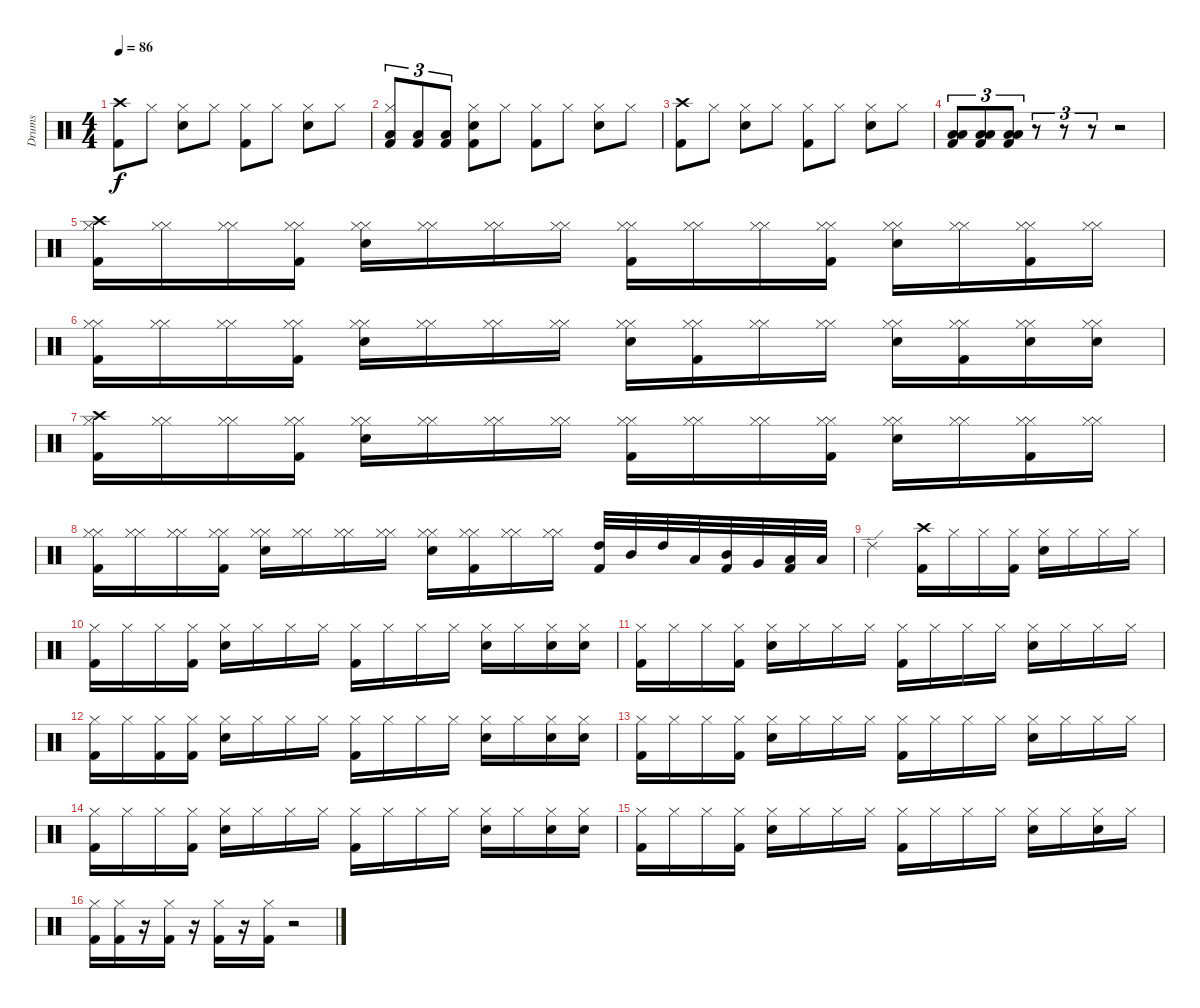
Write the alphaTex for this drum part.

\track ("Drums" "Drums") {instrument percussion}
\staff {score}
\articulation defaults
\ts (4 4)
\tempo 86
\clef neutral
\ks c
("Crash high (hit)" "Kick (hit) 2").8{dy f} "Hi-Hat (closed)".8 ("Hi-Hat (closed)" "Electric Snare (hit)").8 "Hi-Hat (closed)".8 ("Hi-Hat (closed)" "Kick (hit) 2").8 "Hi-Hat (closed)".8 ("Hi-Hat (closed)" "Electric Snare (hit)").8 "Hi-Hat (closed)".8 |
("Hi-Hat (closed)" "Low Tom (hit)" "Kick (hit) 2").8{tu (3 2)} ("Low Tom (hit)" "Kick (hit) 2").8{tu (3 2)} ("Low Tom (hit)" "Kick (hit) 2").8{tu (3 2)} ("Hi-Hat (closed)" "Electric Snare (hit)" "Kick (hit) 2").8 "Hi-Hat (closed)".8 ("Hi-Hat (closed)" "Kick (hit) 2").8 "Hi-Hat (closed)".8 ("Hi-Hat (closed)" "Electric Snare (hit)").8 "Hi-Hat (closed)".8 |
("Crash high (hit)" "Kick (hit) 2").8 "Hi-Hat (closed)".8 ("Hi-Hat (closed)" "Electric Snare (hit)").8 "Hi-Hat (closed)".8 ("Hi-Hat (closed)" "Kick (hit) 2").8 "Hi-Hat (closed)".8 ("Hi-Hat (closed)" "Electric Snare (hit)").8 "Hi-Hat (closed)".8 |
("Low Tom (hit)" "Low Floor Tom (hit)" "Kick (hit) 2").8{tu (3 2)} ("Low Tom (hit)" "Low Floor Tom (hit)" "Kick (hit) 2").8{tu (3 2)} ("Low Tom (hit)" "Low Floor Tom (hit)" "Kick (hit) 2").8{tu (3 2)} r.8{tu (3 2)} r.8{tu (3 2)} r.8{tu (3 2)} r.2 |
("Crash high (hit)" "Hi-Hat (closed)" "Kick (hit) 2").16 ("Hi-Hat (closed)" "Hi-Hat (closed)").16 ("Hi-Hat (closed)" "Hi-Hat (closed)").16 ("Hi-Hat (closed)" "Hi-Hat (closed)" "Kick (hit) 2").16 ("Hi-Hat (closed)" "Hi-Hat (closed)" "Electric Snare (hit)").16 ("Hi-Hat (closed)" "Hi-Hat (closed)").16 ("Hi-Hat (closed)" "Hi-Hat (closed)").16 ("Hi-Hat (closed)" "Hi-Hat (closed)").16 ("Hi-Hat (closed)" "Hi-Hat (closed)" "Kick (hit) 2").16 ("Hi-Hat (closed)" "Hi-Hat (closed)").16 ("Hi-Hat (closed)" "Hi-Hat (closed)").16 ("Hi-Hat (closed)" "Hi-Hat (closed)" "Kick (hit) 2").16 ("Hi-Hat (closed)" "Hi-Hat (closed)" "Electric Snare (hit)").16 ("Hi-Hat (closed)" "Hi-Hat (closed)").16 ("Hi-Hat (closed)" "Hi-Hat (closed)" "Kick (hit) 2").16 ("Hi-Hat (closed)" "Hi-Hat (closed)").16 |
("Hi-Hat (closed)" "Hi-Hat (closed)" "Kick (hit) 2").16 ("Hi-Hat (closed)" "Hi-Hat (closed)").16 ("Hi-Hat (closed)" "Hi-Hat (closed)").16 ("Hi-Hat (closed)" "Hi-Hat (closed)" "Kick (hit) 2").16 ("Hi-Hat (closed)" "Hi-Hat (closed)" "Electric Snare (hit)").16 ("Hi-Hat (closed)" "Hi-Hat (closed)").16 ("Hi-Hat (closed)" "Hi-Hat (closed)").16 ("Hi-Hat (closed)" "Hi-Hat (closed)").16 ("Hi-Hat (closed)" "Hi-Hat (closed)" "Electric Snare (hit)").16 ("Hi-Hat (closed)" "Hi-Hat (closed)" "Kick (hit) 2").16 ("Hi-Hat (closed)" "Hi-Hat (closed)").16 ("Hi-Hat (closed)" "Hi-Hat (closed)").16 ("Hi-Hat (closed)" "Hi-Hat (closed)" "Electric Snare (hit)").16 ("Hi-Hat (closed)" "Hi-Hat (closed)" "Kick (hit) 2").16 ("Hi-Hat (closed)" "Hi-Hat (closed)" "Electric Snare (hit)").16 ("Hi-Hat (closed)" "Hi-Hat (closed)" "Electric Snare (hit)").16 |
("Crash high (hit)" "Hi-Hat (closed)" "Kick (hit) 2").16 ("Hi-Hat (closed)" "Hi-Hat (closed)").16 ("Hi-Hat (closed)" "Hi-Hat (closed)").16 ("Hi-Hat (closed)" "Hi-Hat (closed)" "Kick (hit) 2").16 ("Hi-Hat (closed)" "Hi-Hat (closed)" "Electric Snare (hit)").16 ("Hi-Hat (closed)" "Hi-Hat (closed)").16 ("Hi-Hat (closed)" "Hi-Hat (closed)").16 ("Hi-Hat (closed)" "Hi-Hat (closed)").16 ("Hi-Hat (closed)" "Hi-Hat (closed)" "Kick (hit) 2").16 ("Hi-Hat (closed)" "Hi-Hat (closed)").16 ("Hi-Hat (closed)" "Hi-Hat (closed)").16 ("Hi-Hat (closed)" "Hi-Hat (closed)" "Kick (hit) 2").16 ("Hi-Hat (closed)" "Hi-Hat (closed)" "Electric Snare (hit)").16 ("Hi-Hat (closed)" "Hi-Hat (closed)").16 ("Hi-Hat (closed)" "Hi-Hat (closed)" "Kick (hit) 2").16 ("Hi-Hat (closed)" "Hi-Hat (closed)").16 |
("Hi-Hat (closed)" "Hi-Hat (closed)" "Kick (hit) 2").16 ("Hi-Hat (closed)" "Hi-Hat (closed)").16 ("Hi-Hat (closed)" "Hi-Hat (closed)").16 ("Hi-Hat (closed)" "Hi-Hat (closed)" "Kick (hit) 2").16 ("Hi-Hat (closed)" "Hi-Hat (closed)" "Electric Snare (hit)").16 ("Hi-Hat (closed)" "Hi-Hat (closed)").16 ("Hi-Hat (closed)" "Hi-Hat (closed)").16 ("Hi-Hat (closed)" "Hi-Hat (closed)").16 ("Hi-Hat (closed)" "Hi-Hat (closed)" "Electric Snare (hit)").16 ("Hi-Hat (closed)" "Hi-Hat (closed)" "Kick (hit) 2").16 ("Hi-Hat (closed)" "Hi-Hat (closed)").16 ("Hi-Hat (closed)" "Hi-Hat (closed)").16 ("High Tom (hit)" "Kick (hit) 2").32 "Mid Tom (hit)".32 "High Tom (hit)".32 "Low Tom (hit)".32 ("Mid Tom (hit)" "Kick (hit) 2").32 "Very Low Tom (hit)".32 ("Low Tom (hit)" "Kick (hit) 2").32 "Low Floor Tom (hit)".32 |
"Ride (edge) 2".2 ("Crash high (hit)" "Kick (hit) 2").16 "Hi-Hat (closed)".16 "Hi-Hat (closed)".16 ("Hi-Hat (closed)" "Kick (hit) 2").16 ("Hi-Hat (closed)" "Electric Snare (hit)").16 "Hi-Hat (closed)".16 "Hi-Hat (closed)".16 "Hi-Hat (closed)".16 |
("Hi-Hat (closed)" "Kick (hit) 2").16 "Hi-Hat (closed)".16 "Hi-Hat (closed)".16 ("Hi-Hat (closed)" "Kick (hit) 2").16 ("Hi-Hat (closed)" "Electric Snare (hit)").16 "Hi-Hat (closed)".16 "Hi-Hat (closed)".16 "Hi-Hat (closed)".16 ("Hi-Hat (closed)" "Kick (hit) 2").16 "Hi-Hat (closed)".16 "Hi-Hat (closed)".16 "Hi-Hat (closed)".16 ("Hi-Hat (closed)" "Electric Snare (hit)").16 "Hi-Hat (closed)".16 ("Hi-Hat (closed)" "Electric Snare (hit)").16 ("Hi-Hat (closed)" "Electric Snare (hit)").16 |
("Hi-Hat (closed)" "Kick (hit) 2").16 "Hi-Hat (closed)".16 "Hi-Hat (closed)".16 ("Hi-Hat (closed)" "Kick (hit) 2").16 ("Hi-Hat (closed)" "Electric Snare (hit)").16 "Hi-Hat (closed)".16 "Hi-Hat (closed)".16 "Hi-Hat (closed)".16 ("Hi-Hat (closed)" "Kick (hit) 2").16 "Hi-Hat (closed)".16 "Hi-Hat (closed)".16 "Hi-Hat (closed)".16 ("Hi-Hat (closed)" "Electric Snare (hit)").16 "Hi-Hat (closed)".16 "Hi-Hat (closed)".16 "Hi-Hat (closed)".16 |
("Hi-Hat (closed)" "Kick (hit) 2").16 "Hi-Hat (closed)".16 ("Hi-Hat (closed)" "Kick (hit) 2").16 ("Hi-Hat (closed)" "Kick (hit) 2").16 ("Hi-Hat (closed)" "Electric Snare (hit)").16 "Hi-Hat (closed)".16 "Hi-Hat (closed)".16 "Hi-Hat (closed)".16 ("Hi-Hat (closed)" "Kick (hit) 2").16 "Hi-Hat (closed)".16 "Hi-Hat (closed)".16 "Hi-Hat (closed)".16 ("Hi-Hat (closed)" "Electric Snare (hit)").16 "Hi-Hat (closed)".16 ("Hi-Hat (closed)" "Electric Snare (hit)").16 ("Hi-Hat (closed)" "Electric Snare (hit)").16 |
("Hi-Hat (closed)" "Kick (hit) 2").16 "Hi-Hat (closed)".16 "Hi-Hat (closed)".16 ("Hi-Hat (closed)" "Kick (hit) 2").16 ("Hi-Hat (closed)" "Electric Snare (hit)").16 "Hi-Hat (closed)".16 "Hi-Hat (closed)".16 "Hi-Hat (closed)".16 ("Hi-Hat (closed)" "Kick (hit) 2").16 "Hi-Hat (closed)".16 "Hi-Hat (closed)".16 "Hi-Hat (closed)".16 ("Hi-Hat (closed)" "Electric Snare (hit)").16 "Hi-Hat (closed)".16 "Hi-Hat (closed)".16 "Hi-Hat (closed)".16 |
("Hi-Hat (closed)" "Kick (hit) 2").16 "Hi-Hat (closed)".16 "Hi-Hat (closed)".16 ("Hi-Hat (closed)" "Kick (hit) 2").16 ("Hi-Hat (closed)" "Electric Snare (hit)").16 "Hi-Hat (closed)".16 "Hi-Hat (closed)".16 "Hi-Hat (closed)".16 ("Hi-Hat (closed)" "Kick (hit) 2").16 "Hi-Hat (closed)".16 "Hi-Hat (closed)".16 "Hi-Hat (closed)".16 ("Hi-Hat (closed)" "Electric Snare (hit)").16 "Hi-Hat (closed)".16 ("Hi-Hat (closed)" "Electric Snare (hit)").16 ("Hi-Hat (closed)" "Electric Snare (hit)").16 |
("Hi-Hat (closed)" "Kick (hit) 2").16 "Hi-Hat (closed)".16 "Hi-Hat (closed)".16 ("Hi-Hat (closed)" "Kick (hit) 2").16 ("Hi-Hat (closed)" "Electric Snare (hit)").16 "Hi-Hat (closed)".16 "Hi-Hat (closed)".16 "Hi-Hat (closed)".16 ("Hi-Hat (closed)" "Kick (hit) 2").16 "Hi-Hat (closed)".16 "Hi-Hat (closed)".16 "Hi-Hat (closed)".16 ("Hi-Hat (closed)" "Electric Snare (hit)").16 "Hi-Hat (closed)".16 ("Hi-Hat (closed)" "Electric Snare (hit)").16 "Hi-Hat (closed)".16 |
("Hi-Hat (closed)" "Kick (hit) 2").16 ("Hi-Hat (closed)" "Kick (hit) 2").16 r.16 ("Hi-Hat (closed)" "Kick (hit) 2").16 r.16 ("Hi-Hat (closed)" "Kick (hit) 2").16 r.16 ("Hi-Hat (closed)" "Kick (hit) 2").16 r.2
